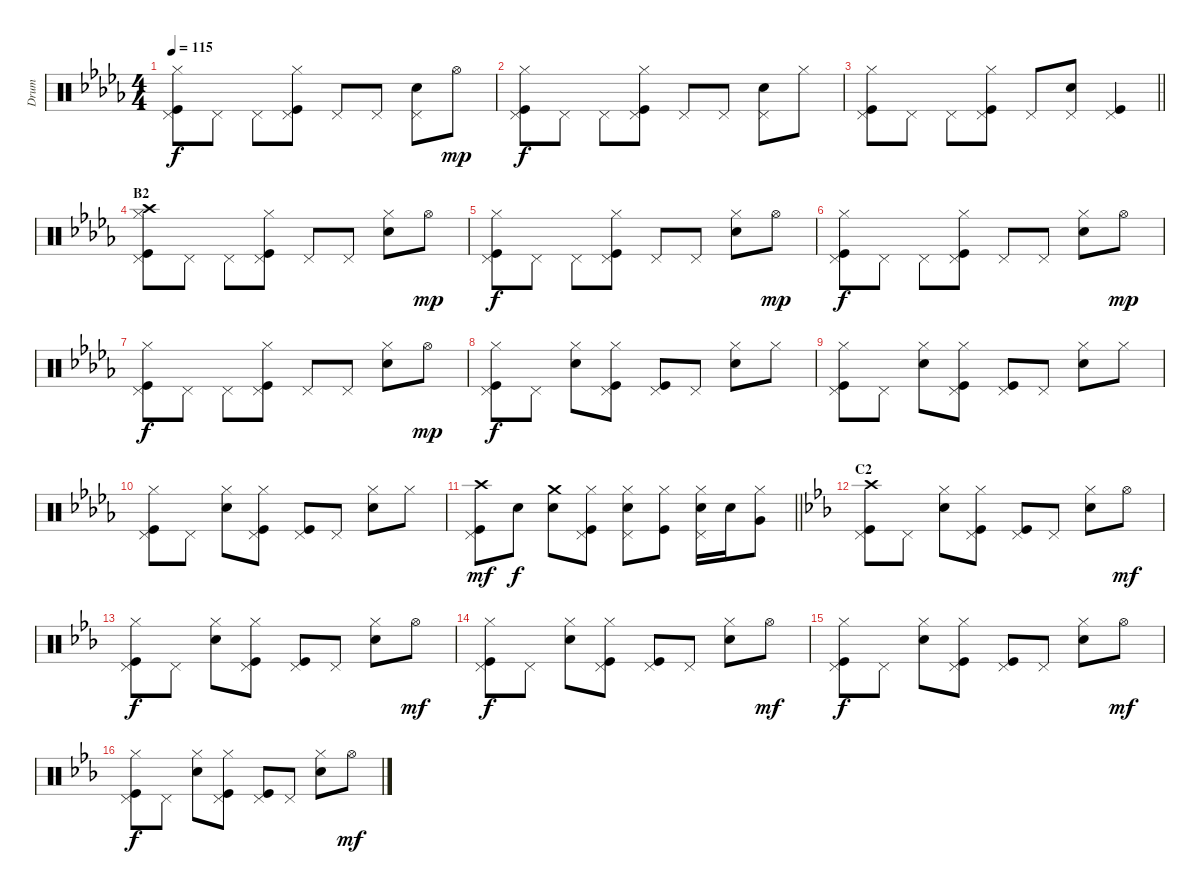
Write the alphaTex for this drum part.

\track ("Drum" "Drum") {instrument percussion}
\staff {score}
\articulation defaults
\ts (4 4)
\tempo 115
\clef neutral
\ks db
("Hi-Hat (closed)" "Pedal Hi-Hat (hit)" "Kick (hit)").8{dy f} "Pedal Hi-Hat (hit)".8 "Pedal Hi-Hat (hit)".8 ("Hi-Hat (closed)" "Pedal Hi-Hat (hit)" "Kick (hit)").8 "Pedal Hi-Hat (hit)".8 "Pedal Hi-Hat (hit)".8 ("Snare (hit) 2" "Pedal Hi-Hat (hit)").8 "Hi-Hat (open)".8{dy mp} |
("Hi-Hat (closed)" "Pedal Hi-Hat (hit)" "Kick (hit)").8{dy f} "Pedal Hi-Hat (hit)".8 "Pedal Hi-Hat (hit)".8 ("Hi-Hat (closed)" "Pedal Hi-Hat (hit)" "Kick (hit)").8 "Pedal Hi-Hat (hit)".8 "Pedal Hi-Hat (hit)".8 ("Snare (hit) 2" "Pedal Hi-Hat (hit)").8 "Hi-Hat (closed)".8 |
\barLineRight lightlight
("Hi-Hat (closed)" "Pedal Hi-Hat (hit)" "Kick (hit)").8 "Pedal Hi-Hat (hit)".8 "Pedal Hi-Hat (hit)".8 ("Hi-Hat (closed)" "Pedal Hi-Hat (hit)" "Kick (hit)").8 "Pedal Hi-Hat (hit)".8 ("Snare (hit) 2" "Pedal Hi-Hat (hit)").8 ("Kick (hit)" "Pedal Hi-Hat (hit)").4 |
\section ("" "B2")
("Hi-Hat (closed)" "Pedal Hi-Hat (hit)" "Kick (hit)" "Crash high (hit)").8 "Pedal Hi-Hat (hit)".8 "Pedal Hi-Hat (hit)".8 ("Hi-Hat (closed)" "Pedal Hi-Hat (hit)" "Kick (hit)").8 "Pedal Hi-Hat (hit)".8 "Pedal Hi-Hat (hit)".8 ("Hi-Hat (closed)" "Snare (hit) 2").8 "Hi-Hat (open)".8{dy mp} |
("Hi-Hat (closed)" "Pedal Hi-Hat (hit)" "Kick (hit)").8{dy f} "Pedal Hi-Hat (hit)".8 "Pedal Hi-Hat (hit)".8 ("Hi-Hat (closed)" "Pedal Hi-Hat (hit)" "Kick (hit)").8 "Pedal Hi-Hat (hit)".8 "Pedal Hi-Hat (hit)".8 ("Hi-Hat (closed)" "Snare (hit) 2").8 "Hi-Hat (open)".8{dy mp} |
("Hi-Hat (closed)" "Pedal Hi-Hat (hit)" "Kick (hit)").8{dy f} "Pedal Hi-Hat (hit)".8 "Pedal Hi-Hat (hit)".8 ("Hi-Hat (closed)" "Pedal Hi-Hat (hit)" "Kick (hit)").8 "Pedal Hi-Hat (hit)".8 "Pedal Hi-Hat (hit)".8 ("Hi-Hat (closed)" "Snare (hit) 2").8 "Hi-Hat (open)".8{dy mp} |
("Hi-Hat (closed)" "Pedal Hi-Hat (hit)" "Kick (hit)").8{dy f} "Pedal Hi-Hat (hit)".8 "Pedal Hi-Hat (hit)".8 ("Hi-Hat (closed)" "Pedal Hi-Hat (hit)" "Kick (hit)").8 "Pedal Hi-Hat (hit)".8 "Pedal Hi-Hat (hit)".8 ("Hi-Hat (closed)" "Snare (hit) 2").8 "Hi-Hat (open)".8{dy mp} |
("Hi-Hat (closed)" "Pedal Hi-Hat (hit)" "Kick (hit)").8{dy f} "Pedal Hi-Hat (hit)".8 ("Hi-Hat (closed)" "Snare (hit) 2").8 ("Hi-Hat (closed)" "Pedal Hi-Hat (hit)" "Kick (hit)").8 ("Kick (hit)" "Pedal Hi-Hat (hit)").8 "Pedal Hi-Hat (hit)".8 ("Hi-Hat (closed)" "Snare (hit) 2").8 "Hi-Hat (closed)".8 |
("Hi-Hat (closed)" "Pedal Hi-Hat (hit)" "Kick (hit)").8 "Pedal Hi-Hat (hit)".8 ("Hi-Hat (closed)" "Snare (hit) 2").8 ("Hi-Hat (closed)" "Pedal Hi-Hat (hit)" "Kick (hit)").8 ("Kick (hit)" "Pedal Hi-Hat (hit)").8 "Pedal Hi-Hat (hit)".8 ("Hi-Hat (closed)" "Snare (hit) 2").8 "Hi-Hat (closed)".8 |
("Hi-Hat (closed)" "Pedal Hi-Hat (hit)" "Kick (hit)").8 "Pedal Hi-Hat (hit)".8 ("Hi-Hat (closed)" "Snare (hit) 2").8 ("Hi-Hat (closed)" "Pedal Hi-Hat (hit)" "Kick (hit)").8 ("Kick (hit)" "Pedal Hi-Hat (hit)").8 "Pedal Hi-Hat (hit)".8 ("Hi-Hat (closed)" "Snare (hit) 2").8 "Hi-Hat (closed)".8 |
\barLineRight lightlight
("Pedal Hi-Hat (hit)" "Kick (hit)" "Crash high (hit)").8{dy mf} "Snare (hit) 2".8{dy f} ("Crash medium (hit)" "Snare (hit) 2").8 ("Hi-Hat (closed)" "Pedal Hi-Hat (hit)" "Kick (hit)").8 ("Hi-Hat (closed)" "Pedal Hi-Hat (hit)" "Snare (hit) 2").8 ("Hi-Hat (closed)" "Kick (hit)").8 ("Hi-Hat (closed)" "Pedal Hi-Hat (hit)" "Snare (hit) 2").16 "Snare (hit) 2".16 ("Hi-Hat (closed)" "Very Low Tom (hit)").8 |
\section ("" "C2")
\ks eb
("Pedal Hi-Hat (hit)" "Kick (hit)" "Crash high (hit)").8 "Pedal Hi-Hat (hit)".8 ("Hi-Hat (closed)" "Snare (hit) 2").8 ("Hi-Hat (closed)" "Pedal Hi-Hat (hit)" "Kick (hit)").8 ("Kick (hit)" "Pedal Hi-Hat (hit)").8 "Pedal Hi-Hat (hit)".8 ("Hi-Hat (closed)" "Snare (hit) 2").8 "Hi-Hat (open)".8{dy mf} |
("Hi-Hat (closed)" "Pedal Hi-Hat (hit)" "Kick (hit)").8{dy f} "Pedal Hi-Hat (hit)".8 ("Hi-Hat (closed)" "Snare (hit) 2").8 ("Hi-Hat (closed)" "Pedal Hi-Hat (hit)" "Kick (hit)").8 ("Kick (hit)" "Pedal Hi-Hat (hit)").8 "Pedal Hi-Hat (hit)".8 ("Hi-Hat (closed)" "Snare (hit) 2").8 "Hi-Hat (open)".8{dy mf} |
("Hi-Hat (closed)" "Pedal Hi-Hat (hit)" "Kick (hit)").8{dy f} "Pedal Hi-Hat (hit)".8 ("Hi-Hat (closed)" "Snare (hit) 2").8 ("Hi-Hat (closed)" "Pedal Hi-Hat (hit)" "Kick (hit)").8 ("Kick (hit)" "Pedal Hi-Hat (hit)").8 "Pedal Hi-Hat (hit)".8 ("Hi-Hat (closed)" "Snare (hit) 2").8 "Hi-Hat (open)".8{dy mf} |
("Hi-Hat (closed)" "Pedal Hi-Hat (hit)" "Kick (hit)").8{dy f} "Pedal Hi-Hat (hit)".8 ("Hi-Hat (closed)" "Snare (hit) 2").8 ("Hi-Hat (closed)" "Pedal Hi-Hat (hit)" "Kick (hit)").8 ("Kick (hit)" "Pedal Hi-Hat (hit)").8 "Pedal Hi-Hat (hit)".8 ("Hi-Hat (closed)" "Snare (hit) 2").8 "Hi-Hat (open)".8{dy mf} |
("Hi-Hat (closed)" "Pedal Hi-Hat (hit)" "Kick (hit)").8{dy f} "Pedal Hi-Hat (hit)".8 ("Hi-Hat (closed)" "Snare (hit) 2").8 ("Hi-Hat (closed)" "Pedal Hi-Hat (hit)" "Kick (hit)").8 ("Kick (hit)" "Pedal Hi-Hat (hit)").8 "Pedal Hi-Hat (hit)".8 ("Hi-Hat (closed)" "Snare (hit) 2").8 "Hi-Hat (open)".8{dy mf}
